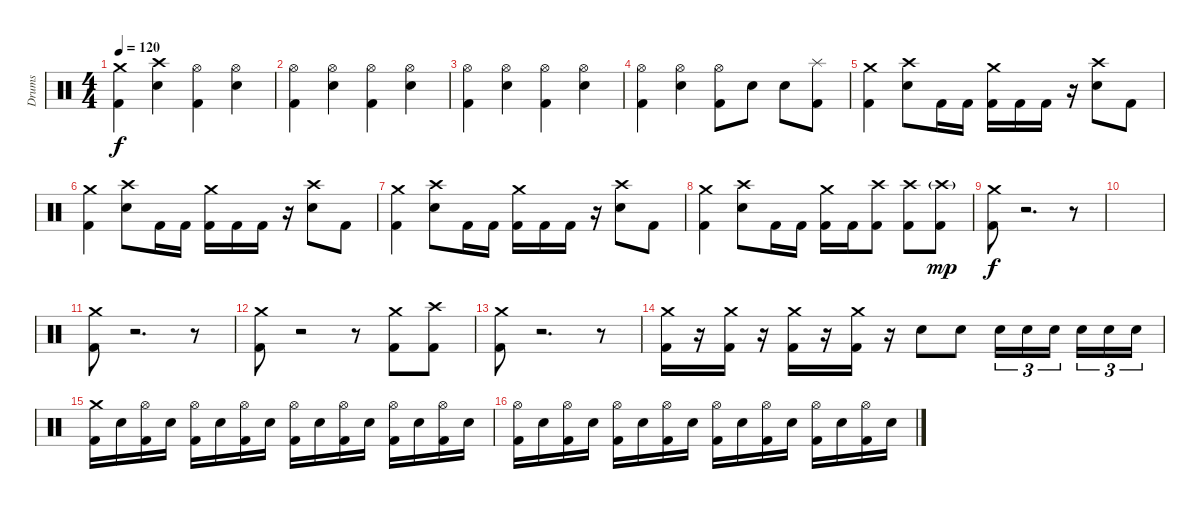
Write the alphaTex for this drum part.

\track ("Drums" "Drums") {instrument percussion}
\staff {score}
\articulation defaults
\ts (4 4)
\tempo 120
\clef neutral
\ks c
("Crash medium (hit)" "Kick (hit) 2").4{dy f} ("Crash high (hit)" "Snare (hit) 2").4 ("Hi-Hat (open)" "Kick (hit) 2").4 ("Hi-Hat (open)" "Snare (hit) 2").4 |
("Hi-Hat (open)" "Kick (hit) 2").4 ("Hi-Hat (open)" "Snare (hit) 2").4 ("Hi-Hat (open)" "Kick (hit) 2").4 ("Hi-Hat (open)" "Snare (hit) 2").4 |
("Hi-Hat (open)" "Kick (hit) 2").4 ("Hi-Hat (open)" "Snare (hit) 2").4 ("Hi-Hat (open)" "Kick (hit) 2").4 ("Hi-Hat (open)" "Snare (hit) 2").4 |
("Hi-Hat (open)" "Kick (hit) 2").4 ("Hi-Hat (open)" "Snare (hit) 2").4 ("Hi-Hat (open)" "Kick (hit) 2").8 "Snare (hit) 2".8 "Snare (hit) 2".8 ("Splash (hit)" "Kick (hit) 2").8 |
("Crash medium (hit)" "Kick (hit) 2").4 ("Crash high (hit)" "Snare (hit) 2").8 "Kick (hit) 2".16 "Kick (hit) 2".16 ("Crash medium (hit)" "Kick (hit) 2").16 "Kick (hit) 2".16 "Kick (hit) 2".16 r.16 ("Crash high (hit)" "Snare (hit) 2").8 "Kick (hit) 2".8 |
("Crash medium (hit)" "Kick (hit) 2").4 ("Crash high (hit)" "Snare (hit) 2").8 "Kick (hit) 2".16 "Kick (hit) 2".16 ("Crash medium (hit)" "Kick (hit) 2").16 "Kick (hit) 2".16 "Kick (hit) 2".16 r.16 ("Crash high (hit)" "Snare (hit) 2").8 "Kick (hit) 2".8 |
("Crash medium (hit)" "Kick (hit) 2").4 ("Crash high (hit)" "Snare (hit) 2").8 "Kick (hit) 2".16 "Kick (hit) 2".16 ("Crash medium (hit)" "Kick (hit) 2").16 "Kick (hit) 2".16 "Kick (hit) 2".16 r.16 ("Crash high (hit)" "Snare (hit) 2").8 "Kick (hit) 2".8 |
("Crash medium (hit)" "Kick (hit) 2").4 ("Crash high (hit)" "Snare (hit) 2").8 "Kick (hit) 2".16 "Kick (hit) 2".16 ("Crash medium (hit)" "Kick (hit) 2").16 "Kick (hit) 2".16 ("Crash high (hit)" "Kick (hit) 2").8 ("Crash high (hit)" "Kick (hit) 2").8 ("Crash high (hit)"{g} "Kick (hit) 2").8{dy mp} |
("Crash medium (hit)" "Kick (hit) 2").8{dy f} r.2{d} r.8 |
|
("Crash medium (hit)" "Kick (hit) 2").8 r.2{d} r.8 |
("Crash medium (hit)" "Kick (hit) 2").8 r.2 r.8 ("Crash medium (hit)" "Kick (hit) 2").8 ("Crash high (hit)" "Kick (hit) 2").8 |
("Crash medium (hit)" "Kick (hit) 2").8 r.2{d} r.8 |
("Crash medium (hit)" "Kick (hit) 2").16 r.16{volume 0} ("Crash medium (hit)" "Kick (hit) 2").16{volume 14} r.16{volume 0} ("Crash medium (hit)" "Kick (hit) 2").16{volume 14} r.16{volume 0} ("Crash medium (hit)" "Kick (hit) 2").16{volume 14} r.16 "Snare (hit) 2".8 "Snare (hit) 2".8 "Snare (hit) 2".16{tu (3 2)} "Snare (hit) 2".16{tu (3 2)} "Snare (hit) 2".16{tu (3 2) beam splitsecondary} "Snare (hit) 2".16{tu (3 2)} "Snare (hit) 2".16{tu (3 2)} "Snare (hit) 2".16{tu (3 2)} |
("Crash medium (hit)" "Kick (hit) 2").16 "Snare (hit) 2".16 ("Hi-Hat (open)" "Kick (hit) 2").16 "Snare (hit) 2".16 ("Hi-Hat (open)" "Kick (hit) 2").16 "Snare (hit) 2".16 ("Hi-Hat (open)" "Kick (hit) 2").16 "Snare (hit) 2".16 ("Hi-Hat (open)" "Kick (hit) 2").16 "Snare (hit) 2".16 ("Hi-Hat (open)" "Kick (hit) 2").16 "Snare (hit) 2".16 ("Hi-Hat (open)" "Kick (hit) 2").16 "Snare (hit) 2".16 ("Hi-Hat (open)" "Kick (hit) 2").16 "Snare (hit) 2".16 |
("Hi-Hat (open)" "Kick (hit) 2").16 "Snare (hit) 2".16 ("Hi-Hat (open)" "Kick (hit) 2").16 "Snare (hit) 2".16 ("Hi-Hat (open)" "Kick (hit) 2").16 "Snare (hit) 2".16 ("Hi-Hat (open)" "Kick (hit) 2").16 "Snare (hit) 2".16 ("Hi-Hat (open)" "Kick (hit) 2").16 "Snare (hit) 2".16 ("Hi-Hat (open)" "Kick (hit) 2").16 "Snare (hit) 2".16 ("Hi-Hat (open)" "Kick (hit) 2").16 "Snare (hit) 2".16 ("Hi-Hat (open)" "Kick (hit) 2").16 "Snare (hit) 2".16
